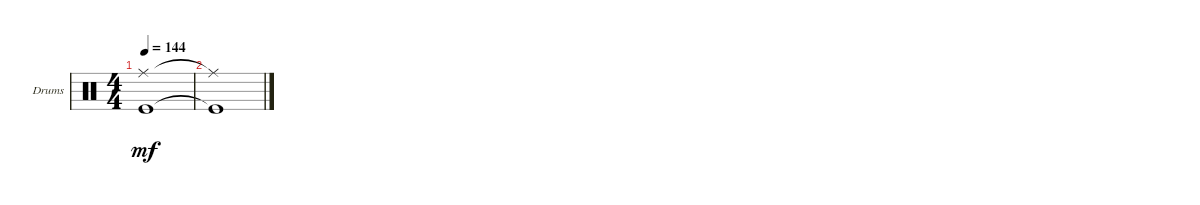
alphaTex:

\defaultSystemsLayout 4
\bracketExtendMode groupsimilarinstruments
\firstSystemTrackNameOrientation horizontal
\otherSystemsTrackNameOrientation horizontal
\track ("Fabrizio Moretti" "Drums") {instrument percussion}
\staff {score}
\articulation defaults
\ts (4 4)
\tempo 144
\clef neutral
\ks c
("Ride (middle)"{t} "Kick (hit)"{t}).1{dy mf} |
("Ride (middle)"{t} "Kick (hit)"{t}).1
